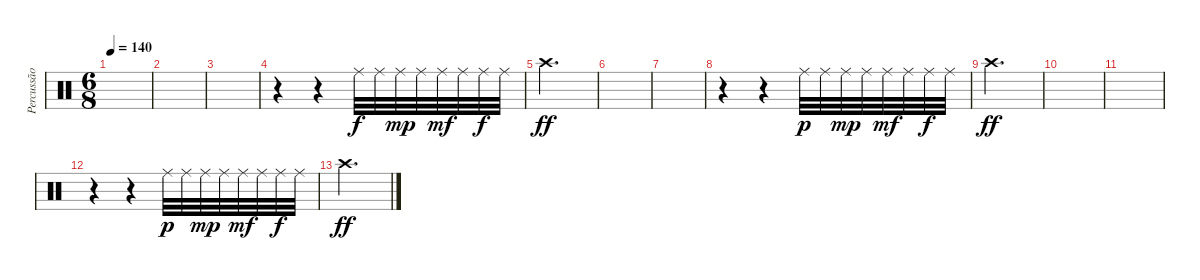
\track ("Percussão" "Percussão") {instrument percussion}
\staff {score}
\articulation defaults
\ts (6 8)
\tempo 140
\clef neutral
\ks c
|
|
|
r.4{volume 10} r.4 "Ride (middle)".32 "Ride (middle)".32 "Ride (middle)".32{dy mp} "Ride (middle)".32 "Ride (middle)".32{dy mf} "Ride (middle)".32 "Ride (middle)".32{dy f} "Ride (middle)".32 |
"Crash high (hit)".2{d dy ff} |
|
|
r.4{volume 10} r.4 "Ride (middle)".32{dy p} "Ride (middle)".32 "Ride (middle)".32{dy mp} "Ride (middle)".32 "Ride (middle)".32{dy mf} "Ride (middle)".32 "Ride (middle)".32{dy f} "Ride (middle)".32 |
"Crash high (hit)".2{d dy ff} |
|
|
r.4{volume 10} r.4 "Ride (middle)".32{dy p} "Ride (middle)".32 "Ride (middle)".32{dy mp} "Ride (middle)".32 "Ride (middle)".32{dy mf} "Ride (middle)".32 "Ride (middle)".32{dy f} "Ride (middle)".32 |
"Crash high (hit)".2{d dy ff}
